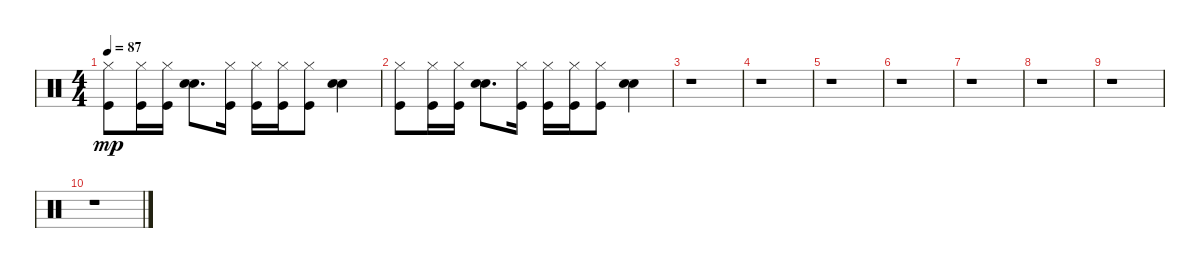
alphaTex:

\track "" {instrument percussion}
\staff {score}
\articulation defaults
\ts (4 4)
\tempo 87
\clef neutral
\ks c
("Kick (hit)" "Hi-Hat (closed)").8{dy mp} ("Kick (hit)" "Hi-Hat (closed)").16 ("Kick (hit)" "Hi-Hat (closed)").16 ("Electric Snare (hit)" "Hand Clap (hit)").8{d} ("Kick (hit)" "Hi-Hat (closed)").16 ("Kick (hit)" "Hi-Hat (closed)").16 ("Kick (hit)" "Hi-Hat (closed)").16 ("Kick (hit)" "Hi-Hat (closed)").8 ("Electric Snare (hit)" "Hand Clap (hit)").4 |
("Kick (hit)" "Hi-Hat (closed)").8 ("Kick (hit)" "Hi-Hat (closed)").16 ("Kick (hit)" "Hi-Hat (closed)").16 ("Electric Snare (hit)" "Hand Clap (hit)").8{d} ("Kick (hit)" "Hi-Hat (closed)").16 ("Kick (hit)" "Hi-Hat (closed)").16 ("Kick (hit)" "Hi-Hat (closed)").16 ("Kick (hit)" "Hi-Hat (closed)").8 ("Hand Clap (hit)" "Electric Snare (hit)").4 |
r.1 |
r.1 |
r.1 |
r.1 |
r.1 |
r.1 |
r.1 |
r.1
